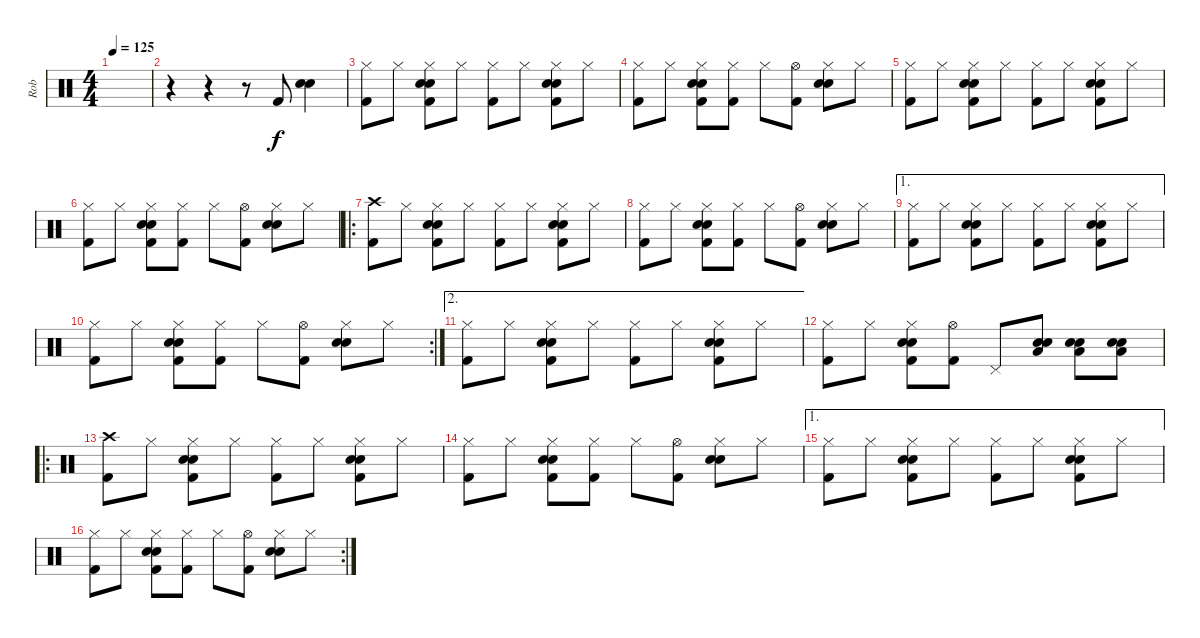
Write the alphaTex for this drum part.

\track ("Rob" "Rob") {instrument percussion}
\staff {score}
\articulation defaults
\ts (4 4)
\tempo 125
\clef neutral
\ks c
|
r.4 r.4 r.8 "Kick (hit) 2".8 ("Electric Snare (hit)" "Snare (hit) 2").4 |
("Hi-Hat (closed)" "Kick (hit) 2").8 "Hi-Hat (closed)".8 ("Hi-Hat (closed)" "Electric Snare (hit)" "Snare (hit) 2" "Kick (hit) 2").8 "Hi-Hat (closed)".8 ("Hi-Hat (closed)" "Kick (hit) 2").8 "Hi-Hat (closed)".8 ("Hi-Hat (closed)" "Electric Snare (hit)" "Snare (hit) 2" "Kick (hit) 2").8 "Hi-Hat (closed)".8 |
("Hi-Hat (closed)" "Kick (hit) 2").8 "Hi-Hat (closed)".8 ("Hi-Hat (closed)" "Electric Snare (hit)" "Snare (hit) 2" "Kick (hit) 2").8 ("Hi-Hat (closed)" "Kick (hit) 2").8 "Hi-Hat (closed)".8 ("Hi-Hat (open)" "Kick (hit) 2").8 ("Hi-Hat (closed)" "Electric Snare (hit)" "Snare (hit) 2").8 "Hi-Hat (closed)".8 |
("Hi-Hat (closed)" "Kick (hit) 2").8 "Hi-Hat (closed)".8 ("Hi-Hat (closed)" "Electric Snare (hit)" "Snare (hit) 2" "Kick (hit) 2").8 "Hi-Hat (closed)".8 ("Hi-Hat (closed)" "Kick (hit) 2").8 "Hi-Hat (closed)".8 ("Hi-Hat (closed)" "Electric Snare (hit)" "Snare (hit) 2" "Kick (hit) 2").8 "Hi-Hat (closed)".8 |
("Hi-Hat (closed)" "Kick (hit) 2").8 "Hi-Hat (closed)".8 ("Hi-Hat (closed)" "Electric Snare (hit)" "Snare (hit) 2" "Kick (hit) 2").8 ("Hi-Hat (closed)" "Kick (hit) 2").8 "Hi-Hat (closed)".8 ("Hi-Hat (open)" "Kick (hit) 2").8 ("Hi-Hat (closed)" "Electric Snare (hit)" "Snare (hit) 2").8 "Hi-Hat (closed)".8 |
\ro
("Crash high (hit)" "Kick (hit) 2").8 "Hi-Hat (closed)".8 ("Hi-Hat (closed)" "Electric Snare (hit)" "Snare (hit) 2" "Kick (hit) 2").8 "Hi-Hat (closed)".8 ("Hi-Hat (closed)" "Kick (hit) 2").8 "Hi-Hat (closed)".8 ("Hi-Hat (closed)" "Electric Snare (hit)" "Snare (hit) 2" "Kick (hit) 2").8 "Hi-Hat (closed)".8 |
("Hi-Hat (closed)" "Kick (hit) 2").8 "Hi-Hat (closed)".8 ("Hi-Hat (closed)" "Electric Snare (hit)" "Snare (hit) 2" "Kick (hit) 2").8 ("Hi-Hat (closed)" "Kick (hit) 2").8 "Hi-Hat (closed)".8 ("Hi-Hat (open)" "Kick (hit) 2").8 ("Hi-Hat (closed)" "Electric Snare (hit)" "Snare (hit) 2").8 "Hi-Hat (closed)".8 |
\ae 1
("Hi-Hat (closed)" "Kick (hit) 2").8 "Hi-Hat (closed)".8 ("Hi-Hat (closed)" "Electric Snare (hit)" "Snare (hit) 2" "Kick (hit) 2").8 "Hi-Hat (closed)".8 ("Hi-Hat (closed)" "Kick (hit) 2").8 "Hi-Hat (closed)".8 ("Hi-Hat (closed)" "Electric Snare (hit)" "Snare (hit) 2" "Kick (hit) 2").8 "Hi-Hat (closed)".8 |
\rc 2
("Hi-Hat (closed)" "Kick (hit) 2").8 "Hi-Hat (closed)".8 ("Hi-Hat (closed)" "Electric Snare (hit)" "Snare (hit) 2" "Kick (hit) 2").8 ("Hi-Hat (closed)" "Kick (hit) 2").8 "Hi-Hat (closed)".8 ("Hi-Hat (open)" "Kick (hit) 2").8 ("Hi-Hat (closed)" "Electric Snare (hit)" "Snare (hit) 2").8 "Hi-Hat (closed)".8 |
\ae 2
("Hi-Hat (closed)" "Kick (hit) 2").8 "Hi-Hat (closed)".8 ("Hi-Hat (closed)" "Electric Snare (hit)" "Snare (hit) 2" "Kick (hit) 2").8 "Hi-Hat (closed)".8 ("Hi-Hat (closed)" "Kick (hit) 2").8 "Hi-Hat (closed)".8 ("Hi-Hat (closed)" "Electric Snare (hit)" "Snare (hit) 2" "Kick (hit) 2").8 "Hi-Hat (closed)".8 |
("Hi-Hat (closed)" "Kick (hit) 2").8 "Hi-Hat (closed)".8 ("Hi-Hat (closed)" "Electric Snare (hit)" "Snare (hit) 2" "Kick (hit) 2").8 ("Hi-Hat (open)" "Kick (hit) 2").8 "Pedal Hi-Hat (hit)".8 ("Low Floor Tom (hit)" "Electric Snare (hit)" "Snare (hit) 2").8 ("Low Floor Tom (hit)" "Electric Snare (hit)" "Snare (hit) 2").8 ("Low Floor Tom (hit)" "Electric Snare (hit)" "Snare (hit) 2").8 |
\ro
("Crash high (hit)" "Kick (hit) 2").8 "Hi-Hat (closed)".8 ("Hi-Hat (closed)" "Electric Snare (hit)" "Snare (hit) 2" "Kick (hit) 2").8 "Hi-Hat (closed)".8 ("Hi-Hat (closed)" "Kick (hit) 2").8 "Hi-Hat (closed)".8 ("Hi-Hat (closed)" "Electric Snare (hit)" "Snare (hit) 2" "Kick (hit) 2").8 "Hi-Hat (closed)".8 |
("Hi-Hat (closed)" "Kick (hit) 2").8 "Hi-Hat (closed)".8 ("Hi-Hat (closed)" "Electric Snare (hit)" "Snare (hit) 2" "Kick (hit) 2").8 ("Hi-Hat (closed)" "Kick (hit) 2").8 "Hi-Hat (closed)".8 ("Hi-Hat (open)" "Kick (hit) 2").8 ("Hi-Hat (closed)" "Electric Snare (hit)" "Snare (hit) 2").8 "Hi-Hat (closed)".8 |
\ae 1
("Hi-Hat (closed)" "Kick (hit) 2").8 "Hi-Hat (closed)".8 ("Hi-Hat (closed)" "Electric Snare (hit)" "Snare (hit) 2" "Kick (hit) 2").8 "Hi-Hat (closed)".8 ("Hi-Hat (closed)" "Kick (hit) 2").8 "Hi-Hat (closed)".8 ("Hi-Hat (closed)" "Electric Snare (hit)" "Snare (hit) 2" "Kick (hit) 2").8 "Hi-Hat (closed)".8 |
\rc 2
("Hi-Hat (closed)" "Kick (hit) 2").8 "Hi-Hat (closed)".8 ("Hi-Hat (closed)" "Electric Snare (hit)" "Snare (hit) 2" "Kick (hit) 2").8 ("Hi-Hat (closed)" "Kick (hit) 2").8 "Hi-Hat (closed)".8 ("Hi-Hat (open)" "Kick (hit) 2").8 ("Hi-Hat (closed)" "Electric Snare (hit)" "Snare (hit) 2").8 "Hi-Hat (closed)".8
